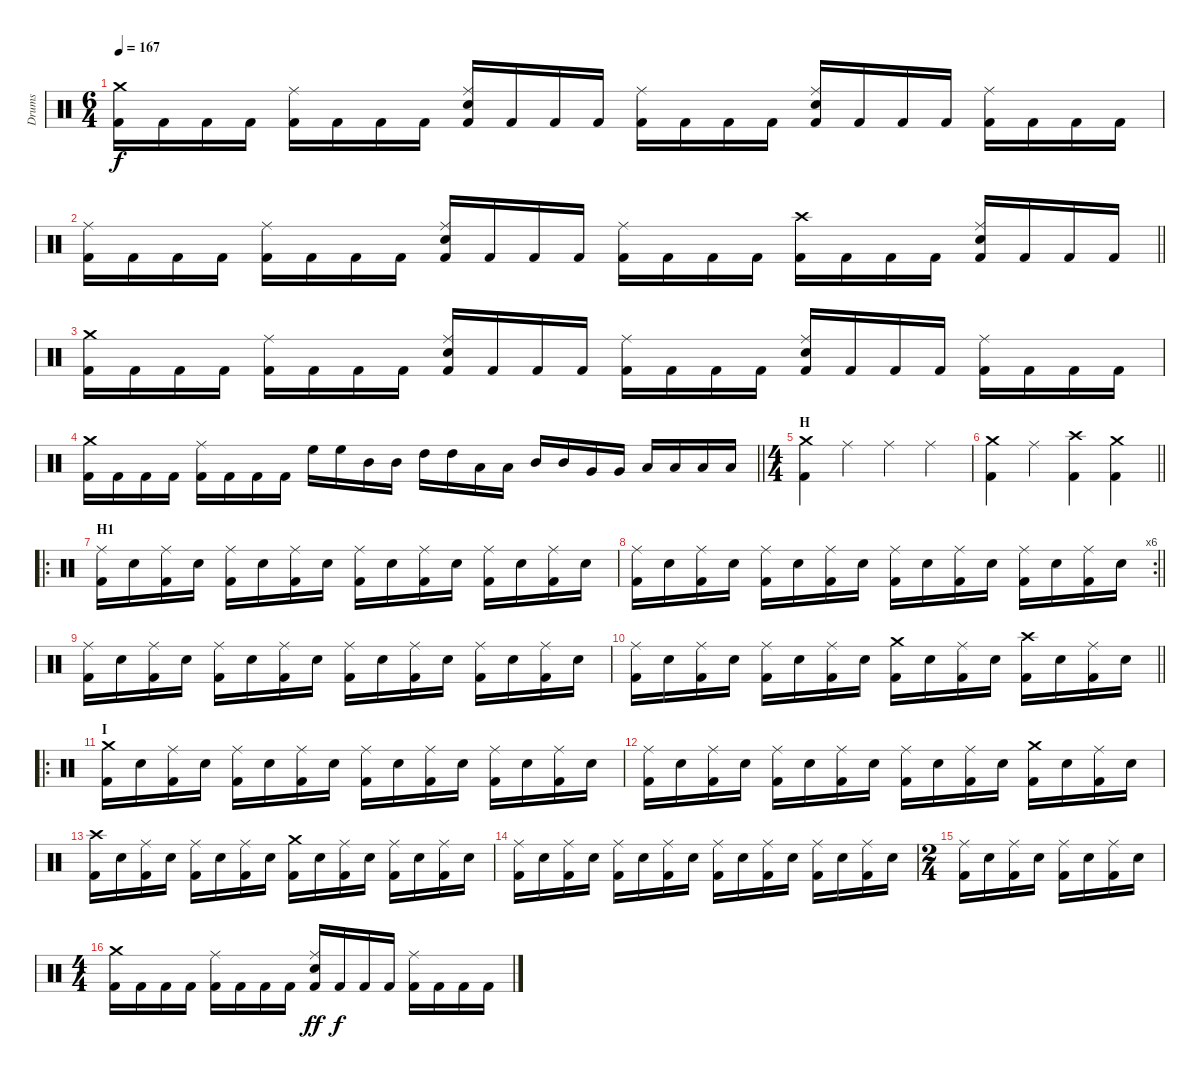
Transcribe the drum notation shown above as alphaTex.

\track ("Drums" "Drums") {instrument percussion}
\staff {score}
\articulation defaults
\ts (6 4)
\section ("" "")
\tempo 167
\clef neutral
\ks c
("Crash medium (hit)" "Kick (hit) 2").16{dy f} "Kick (hit) 2".16 "Kick (hit) 2".16 "Kick (hit) 2".16 ("Ride (middle)" "Kick (hit) 2").16 "Kick (hit) 2".16 "Kick (hit) 2".16 "Kick (hit) 2".16 ("Ride (middle)" "Electric Snare (hit)" "Kick (hit) 2").16 "Kick (hit) 2".16 "Kick (hit) 2".16 "Kick (hit) 2".16 ("Ride (middle)" "Kick (hit) 2").16 "Kick (hit) 2".16 "Kick (hit) 2".16 "Kick (hit) 2".16 ("Ride (middle)" "Electric Snare (hit)" "Kick (hit) 2").16 "Kick (hit) 2".16 "Kick (hit) 2".16 "Kick (hit) 2".16 ("Ride (middle)" "Kick (hit) 2").16 "Kick (hit) 2".16 "Kick (hit) 2".16 "Kick (hit) 2".16 |
\barLineRight lightlight
("Ride (middle)" "Kick (hit) 2").16 "Kick (hit) 2".16 "Kick (hit) 2".16 "Kick (hit) 2".16 ("Ride (middle)" "Kick (hit) 2").16 "Kick (hit) 2".16 "Kick (hit) 2".16 "Kick (hit) 2".16 ("Ride (middle)" "Electric Snare (hit)" "Kick (hit) 2").16 "Kick (hit) 2".16 "Kick (hit) 2".16 "Kick (hit) 2".16 ("Ride (middle)" "Kick (hit) 2").16 "Kick (hit) 2".16 "Kick (hit) 2".16 "Kick (hit) 2".16 ("Crash high (hit)" "Kick (hit) 2").16 "Kick (hit) 2".16 "Kick (hit) 2".16 "Kick (hit) 2".16 ("Ride (middle)" "Electric Snare (hit)" "Kick (hit) 2").16 "Kick (hit) 2".16 "Kick (hit) 2".16 "Kick (hit) 2".16 |
\section ("" "")
("Crash medium (hit)" "Kick (hit) 2").16 "Kick (hit) 2".16 "Kick (hit) 2".16 "Kick (hit) 2".16 ("Ride (middle)" "Kick (hit) 2").16 "Kick (hit) 2".16 "Kick (hit) 2".16 "Kick (hit) 2".16 ("Ride (middle)" "Electric Snare (hit)" "Kick (hit) 2").16 "Kick (hit) 2".16 "Kick (hit) 2".16 "Kick (hit) 2".16 ("Ride (middle)" "Kick (hit) 2").16 "Kick (hit) 2".16 "Kick (hit) 2".16 "Kick (hit) 2".16 ("Ride (middle)" "Electric Snare (hit)" "Kick (hit) 2").16 "Kick (hit) 2".16 "Kick (hit) 2".16 "Kick (hit) 2".16 ("Ride (middle)" "Kick (hit) 2").16 "Kick (hit) 2".16 "Kick (hit) 2".16 "Kick (hit) 2".16 |
\barLineRight lightlight
("Crash medium (hit)" "Kick (hit) 2").16 "Kick (hit) 2".16 "Kick (hit) 2".16 "Kick (hit) 2".16 ("Ride (middle)" "Kick (hit) 2").16 "Kick (hit) 2".16 "Kick (hit) 2".16 "Kick (hit) 2".16 "High Floor Tom (hit)".16 "High Floor Tom (hit)".16 "Mid Tom (hit)".16 "Mid Tom (hit)".16 "High Tom (hit)".16 "High Tom (hit)".16 "Low Tom (hit)".16 "Low Tom (hit)".16 "Mid Tom (hit)".16 "Mid Tom (hit)".16 "Very Low Tom (hit)".16 "Very Low Tom (hit)".16 "Low Tom (hit)".16 "Low Tom (hit)".16 "Low Floor Tom (hit)".16 "Low Floor Tom (hit)".16 |
\ts (4 4)
\section ("" "H")
("Crash medium (hit)" "Kick (hit) 2").4 "Ride (middle)".4 "Ride (middle)".4 "Ride (middle)".4 |
\barLineRight lightlight
("Crash medium (hit)" "Kick (hit) 2").4 "Ride (middle)".4 ("Crash high (hit)" "Kick (hit) 2").4 ("Crash medium (hit)" "Kick (hit) 2").4 |
\ro
\section ("" "H1")
("Ride (middle)" "Kick (hit) 2").16 "Electric Snare (hit)".16 ("Ride (middle)" "Kick (hit) 2").16 "Electric Snare (hit)".16 ("Ride (middle)" "Kick (hit) 2").16 "Electric Snare (hit)".16 ("Ride (middle)" "Kick (hit) 2").16 "Electric Snare (hit)".16 ("Ride (middle)" "Kick (hit) 2").16 "Electric Snare (hit)".16 ("Ride (middle)" "Kick (hit) 2").16 "Electric Snare (hit)".16 ("Ride (middle)" "Kick (hit) 2").16 "Electric Snare (hit)".16 ("Ride (middle)" "Kick (hit) 2").16 "Electric Snare (hit)".16 |
\rc 6
\barLineRight lightlight
("Ride (middle)" "Kick (hit) 2").16 "Electric Snare (hit)".16 ("Ride (middle)" "Kick (hit) 2").16 "Electric Snare (hit)".16 ("Ride (middle)" "Kick (hit) 2").16 "Electric Snare (hit)".16 ("Ride (middle)" "Kick (hit) 2").16 "Electric Snare (hit)".16 ("Ride (middle)" "Kick (hit) 2").16 "Electric Snare (hit)".16 ("Ride (middle)" "Kick (hit) 2").16 "Electric Snare (hit)".16 ("Ride (middle)" "Kick (hit) 2").16 "Electric Snare (hit)".16 ("Ride (middle)" "Kick (hit) 2").16 "Electric Snare (hit)".16 |
\section ("" "")
("Ride (middle)" "Kick (hit) 2").16 "Electric Snare (hit)".16 ("Ride (middle)" "Kick (hit) 2").16 "Electric Snare (hit)".16 ("Ride (middle)" "Kick (hit) 2").16 "Electric Snare (hit)".16 ("Ride (middle)" "Kick (hit) 2").16 "Electric Snare (hit)".16 ("Ride (middle)" "Kick (hit) 2").16 "Electric Snare (hit)".16 ("Ride (middle)" "Kick (hit) 2").16 "Electric Snare (hit)".16 ("Ride (middle)" "Kick (hit) 2").16 "Electric Snare (hit)".16 ("Ride (middle)" "Kick (hit) 2").16 "Electric Snare (hit)".16 |
\barLineRight lightlight
("Ride (middle)" "Kick (hit) 2").16 "Electric Snare (hit)".16 ("Ride (middle)" "Kick (hit) 2").16 "Electric Snare (hit)".16 ("Ride (middle)" "Kick (hit) 2").16 "Electric Snare (hit)".16 ("Ride (middle)" "Kick (hit) 2").16 "Electric Snare (hit)".16 ("Crash medium (hit)" "Kick (hit) 2").16 "Electric Snare (hit)".16 ("Ride (middle)" "Kick (hit) 2").16 "Electric Snare (hit)".16 ("Crash high (hit)" "Kick (hit) 2").16 "Electric Snare (hit)".16 ("Ride (middle)" "Kick (hit) 2").16 "Electric Snare (hit)".16 |
\ro
\section ("" "I")
("Crash medium (hit)" "Kick (hit) 2").16 "Electric Snare (hit)".16 ("Ride (middle)" "Kick (hit) 2").16 "Electric Snare (hit)".16 ("Ride (middle)" "Kick (hit) 2").16 "Electric Snare (hit)".16 ("Ride (middle)" "Kick (hit) 2").16 "Electric Snare (hit)".16 ("Ride (middle)" "Kick (hit) 2").16 "Electric Snare (hit)".16 ("Ride (middle)" "Kick (hit) 2").16 "Electric Snare (hit)".16 ("Ride (middle)" "Kick (hit) 2").16 "Electric Snare (hit)".16 ("Ride (middle)" "Kick (hit) 2").16 "Electric Snare (hit)".16 |
("Ride (middle)" "Kick (hit) 2").16 "Electric Snare (hit)".16 ("Ride (middle)" "Kick (hit) 2").16 "Electric Snare (hit)".16 ("Ride (middle)" "Kick (hit) 2").16 "Electric Snare (hit)".16 ("Ride (middle)" "Kick (hit) 2").16 "Electric Snare (hit)".16 ("Ride (middle)" "Kick (hit) 2").16 "Electric Snare (hit)".16 ("Ride (middle)" "Kick (hit) 2").16 "Electric Snare (hit)".16 ("Crash medium (hit)" "Kick (hit) 2").16 "Electric Snare (hit)".16 ("Ride (middle)" "Kick (hit) 2").16 "Electric Snare (hit)".16 |
("Crash high (hit)" "Kick (hit) 2").16 "Electric Snare (hit)".16 ("Ride (middle)" "Kick (hit) 2").16 "Electric Snare (hit)".16 ("Ride (middle)" "Kick (hit) 2").16 "Electric Snare (hit)".16 ("Ride (middle)" "Kick (hit) 2").16 "Electric Snare (hit)".16 ("Crash medium (hit)" "Kick (hit) 2").16 "Electric Snare (hit)".16 ("Ride (middle)" "Kick (hit) 2").16 "Electric Snare (hit)".16 ("Ride (middle)" "Kick (hit) 2").16 "Electric Snare (hit)".16 ("Ride (middle)" "Kick (hit) 2").16 "Electric Snare (hit)".16 |
("Ride (middle)" "Kick (hit) 2").16 "Electric Snare (hit)".16 ("Ride (middle)" "Kick (hit) 2").16 "Electric Snare (hit)".16 ("Ride (middle)" "Kick (hit) 2").16 "Electric Snare (hit)".16 ("Ride (middle)" "Kick (hit) 2").16 "Electric Snare (hit)".16 ("Ride (middle)" "Kick (hit) 2").16 "Electric Snare (hit)".16 ("Ride (middle)" "Kick (hit) 2").16 "Electric Snare (hit)".16 ("Ride (middle)" "Kick (hit) 2").16 "Electric Snare (hit)".16 ("Ride (middle)" "Kick (hit) 2").16 "Electric Snare (hit)".16 |
\ts (2 4)
("Ride (middle)" "Kick (hit) 2").16 "Electric Snare (hit)".16 ("Ride (middle)" "Kick (hit) 2").16 "Electric Snare (hit)".16 ("Ride (middle)" "Kick (hit) 2").16 "Electric Snare (hit)".16 ("Ride (middle)" "Kick (hit) 2").16 "Electric Snare (hit)".16 |
\ts (4 4)
("Crash medium (hit)" "Kick (hit) 2").16 "Kick (hit) 2".16 "Kick (hit) 2".16 "Kick (hit) 2".16 ("Ride (middle)" "Kick (hit) 2").16 "Kick (hit) 2".16 "Kick (hit) 2".16 "Kick (hit) 2".16 ("Ride (middle)" "Electric Snare (hit)" "Kick (hit) 2").16{dy ff} "Kick (hit) 2".16{dy f} "Kick (hit) 2".16 "Kick (hit) 2".16 ("Ride (middle)" "Kick (hit) 2").16 "Kick (hit) 2".16 "Kick (hit) 2".16 "Kick (hit) 2".16
